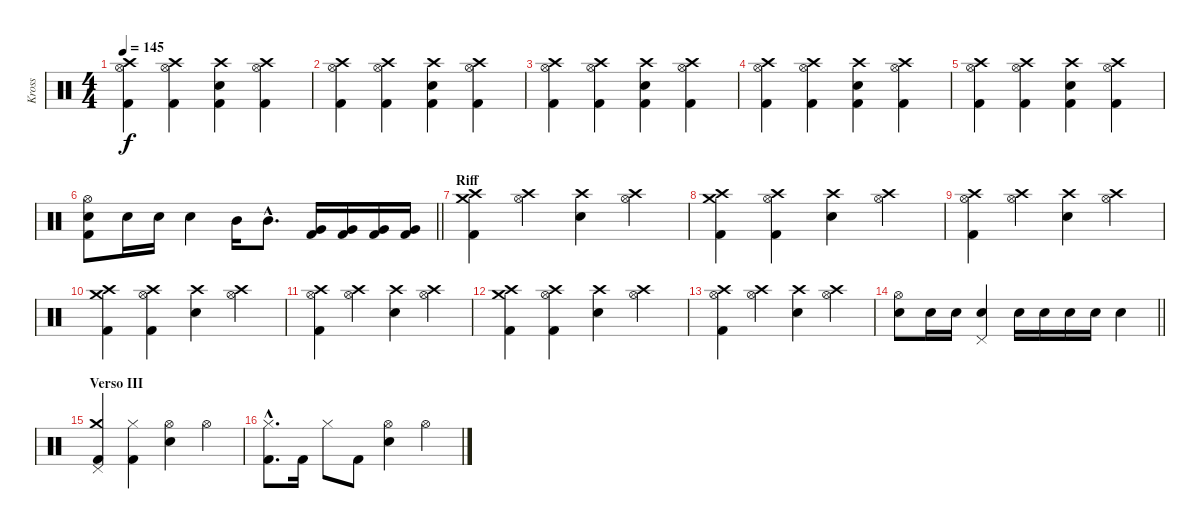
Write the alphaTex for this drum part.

\track ("Kross" "Kross") {instrument percussion}
\staff {score}
\articulation defaults
\ts (4 4)
\tempo 145
\clef neutral
\ks c
("Crash high (hit)" "Hi-Hat (open)" "Kick (hit) 2").4{dy f} ("Crash high (hit)" "Hi-Hat (open)" "Kick (hit) 2").4 ("Crash high (hit)" "Electric Snare (hit)" "Kick (hit) 2").4 ("Crash high (hit)" "Hi-Hat (open)" "Kick (hit) 2").4 |
("Crash high (hit)" "Hi-Hat (open)" "Kick (hit) 2").4 ("Crash high (hit)" "Hi-Hat (open)" "Kick (hit) 2").4 ("Crash high (hit)" "Electric Snare (hit)" "Kick (hit) 2").4 ("Crash high (hit)" "Hi-Hat (open)" "Kick (hit) 2").4 |
("Crash high (hit)" "Hi-Hat (open)" "Kick (hit) 2").4 ("Crash high (hit)" "Hi-Hat (open)" "Kick (hit) 2").4 ("Crash high (hit)" "Electric Snare (hit)" "Kick (hit) 2").4 ("Crash high (hit)" "Hi-Hat (open)" "Kick (hit) 2").4 |
("Crash high (hit)" "Hi-Hat (open)" "Kick (hit) 2").4 ("Crash high (hit)" "Hi-Hat (open)" "Kick (hit) 2").4 ("Crash high (hit)" "Electric Snare (hit)" "Kick (hit) 2").4 ("Crash high (hit)" "Hi-Hat (open)" "Kick (hit) 2").4 |
("Crash high (hit)" "Hi-Hat (open)" "Kick (hit) 2").4 ("Crash high (hit)" "Hi-Hat (open)" "Kick (hit) 2").4 ("Crash high (hit)" "Electric Snare (hit)" "Kick (hit) 2").4 ("Crash high (hit)" "Hi-Hat (open)" "Kick (hit) 2").4 |
\barLineRight lightlight
("Hi-Hat (open)" "Electric Snare (hit)" "Kick (hit) 2").8 "Electric Snare (hit)".16 "Electric Snare (hit)".16 "Electric Snare (hit)".4 "Mid Tom (hit)".16 "Mid Tom (hit)"{hac}.8{d} ("Very Low Tom (hit)" "Kick (hit) 2").16 ("Very Low Tom (hit)" "Kick (hit) 2").16 ("Very Low Tom (hit)" "Kick (hit) 2").16 ("Very Low Tom (hit)" "Kick (hit) 2").16 |
\section ("" "Riff")
("Crash medium (hit)" "Crash high (hit)" "Kick (hit) 2").4 ("Crash high (hit)" "Hi-Hat (open)").4 ("Crash high (hit)" "Electric Snare (hit)").4 ("Crash high (hit)" "Hi-Hat (open)").4 |
("Crash medium (hit)" "Crash high (hit)" "Kick (hit) 2").4 ("Crash high (hit)" "Hi-Hat (open)" "Kick (hit) 2").4 ("Crash high (hit)" "Electric Snare (hit)").4 ("Crash high (hit)" "Hi-Hat (open)").4 |
("Crash high (hit)" "Hi-Hat (open)" "Kick (hit) 2").4 ("Crash high (hit)" "Hi-Hat (open)").4 ("Crash high (hit)" "Electric Snare (hit)").4 ("Crash high (hit)" "Hi-Hat (open)").4 |
("Crash medium (hit)" "Crash high (hit)" "Kick (hit) 2").4 ("Crash high (hit)" "Hi-Hat (open)" "Kick (hit) 2").4 ("Crash high (hit)" "Electric Snare (hit)").4 ("Crash high (hit)" "Hi-Hat (open)").4 |
("Crash high (hit)" "Hi-Hat (open)" "Kick (hit) 2").4 ("Crash high (hit)" "Hi-Hat (open)").4 ("Crash high (hit)" "Electric Snare (hit)").4 ("Crash high (hit)" "Hi-Hat (open)").4 |
("Crash medium (hit)" "Crash high (hit)" "Kick (hit) 2").4 ("Crash high (hit)" "Hi-Hat (open)" "Kick (hit) 2").4 ("Crash high (hit)" "Electric Snare (hit)").4 ("Crash high (hit)" "Hi-Hat (open)").4 |
("Crash high (hit)" "Hi-Hat (open)" "Kick (hit) 2").4 ("Crash high (hit)" "Hi-Hat (open)").4 ("Crash high (hit)" "Electric Snare (hit)").4 ("Crash high (hit)" "Hi-Hat (open)").4 |
\barLineRight lightlight
("Hi-Hat (open)" "Electric Snare (hit)").8 "Electric Snare (hit)".16 "Electric Snare (hit)".16 ("Pedal Hi-Hat (hit)" "Electric Snare (hit)").4 "Electric Snare (hit)".16 "Electric Snare (hit)".16 "Electric Snare (hit)".16 "Electric Snare (hit)".16 "Electric Snare (hit)".4 |
\section ("" "Verso III")
("Crash medium (hit)" "Pedal Hi-Hat (hit)" "Kick (hit) 2").4 ("Hi-Hat (closed)" "Kick (hit) 2").4 ("Hi-Hat (open)" "Electric Snare (hit)").4 "Hi-Hat (open)".4 |
("Hi-Hat (closed)"{hac} "Kick (hit) 2"{hac}).8{d} "Kick (hit) 2".16 "Hi-Hat (closed)".8 "Kick (hit) 2".8 ("Hi-Hat (open)" "Electric Snare (hit)").4 "Hi-Hat (open)".4
